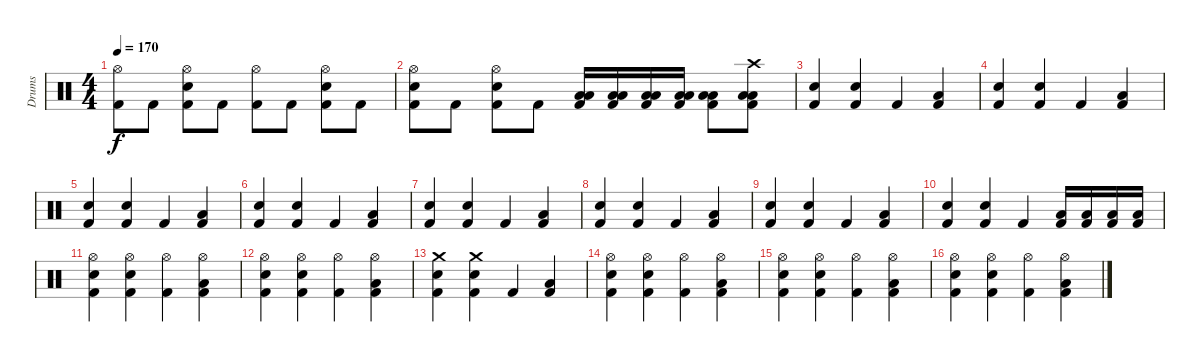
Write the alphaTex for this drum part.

\track ("Drums" "Drums") {instrument percussion}
\staff {score}
\articulation defaults
\ts (4 4)
\tempo 170
\clef neutral
\ks c
("Hi-Hat (open)" "Kick (hit) 2").8{dy f} "Kick (hit) 2".8 ("Hi-Hat (open)" "Snare (hit) 2" "Kick (hit) 2").8 "Kick (hit) 2".8 ("Hi-Hat (open)" "Kick (hit) 2").8 "Kick (hit) 2".8 ("Hi-Hat (open)" "Snare (hit) 2" "Kick (hit) 2").8 "Kick (hit) 2".8 |
("Hi-Hat (open)" "Snare (hit) 2" "Kick (hit) 2").8 "Kick (hit) 2".8 ("Hi-Hat (open)" "Snare (hit) 2" "Kick (hit) 2").8 "Kick (hit) 2".8 ("Low Floor Tom (hit)" "Low Floor Tom (hit)" "Kick (hit) 2").16 ("Low Floor Tom (hit)" "Low Floor Tom (hit)" "Kick (hit) 2").16 ("Low Floor Tom (hit)" "Low Floor Tom (hit)" "Kick (hit) 2").16 ("Low Floor Tom (hit)" "Low Floor Tom (hit)" "Kick (hit) 2").16 ("Low Floor Tom (hit)" "Low Floor Tom (hit)" "Kick (hit) 2").8 ("Crash high (hit)" "Low Floor Tom (hit)" "Low Floor Tom (hit)" "Kick (hit) 2").8 |
("Snare (hit) 2" "Kick (hit) 2").4 ("Snare (hit) 2" "Kick (hit) 2").4 "Kick (hit) 2".4 ("Low Tom (hit)" "Kick (hit) 2").4 |
("Snare (hit) 2" "Kick (hit) 2").4 ("Snare (hit) 2" "Kick (hit) 2").4 "Kick (hit) 2".4 ("Low Tom (hit)" "Kick (hit) 2").4 |
("Snare (hit) 2" "Kick (hit) 2").4 ("Snare (hit) 2" "Kick (hit) 2").4 "Kick (hit) 2".4 ("Low Tom (hit)" "Kick (hit) 2").4 |
("Snare (hit) 2" "Kick (hit) 2").4 ("Snare (hit) 2" "Kick (hit) 2").4 "Kick (hit) 2".4 ("Low Tom (hit)" "Kick (hit) 2").4 |
("Snare (hit) 2" "Kick (hit) 2").4 ("Snare (hit) 2" "Kick (hit) 2").4 "Kick (hit) 2".4 ("Low Tom (hit)" "Kick (hit) 2").4 |
("Snare (hit) 2" "Kick (hit) 2").4 ("Snare (hit) 2" "Kick (hit) 2").4 "Kick (hit) 2".4 ("Low Tom (hit)" "Kick (hit) 2").4 |
("Snare (hit) 2" "Kick (hit) 2").4 ("Snare (hit) 2" "Kick (hit) 2").4 "Kick (hit) 2".4 ("Low Tom (hit)" "Kick (hit) 2").4 |
("Snare (hit) 2" "Kick (hit) 2").4 ("Snare (hit) 2" "Kick (hit) 2").4 "Kick (hit) 2".4 ("Low Floor Tom (hit)" "Kick (hit) 2").16 ("Low Floor Tom (hit)" "Kick (hit) 2").16 ("Low Floor Tom (hit)" "Kick (hit) 2").16 ("Low Floor Tom (hit)" "Kick (hit) 2").16 |
("Hi-Hat (open)" "Snare (hit) 2" "Kick (hit) 2").4 ("Hi-Hat (open)" "Snare (hit) 2" "Kick (hit) 2").4 ("Hi-Hat (open)" "Kick (hit) 2").4 ("Hi-Hat (open)" "Low Tom (hit)" "Kick (hit) 2").4 |
("Hi-Hat (open)" "Snare (hit) 2" "Kick (hit) 2").4 ("Hi-Hat (open)" "Snare (hit) 2" "Kick (hit) 2").4 ("Hi-Hat (open)" "Kick (hit) 2").4 ("Hi-Hat (open)" "Low Tom (hit)" "Kick (hit) 2").4 |
("Crash medium (hit)" "Snare (hit) 2" "Kick (hit) 2").4 ("Crash medium (hit)" "Snare (hit) 2" "Kick (hit) 2").4 "Kick (hit) 2".4 ("Low Tom (hit)" "Kick (hit) 2").4 |
("Hi-Hat (open)" "Snare (hit) 2" "Kick (hit) 2").4 ("Hi-Hat (open)" "Snare (hit) 2" "Kick (hit) 2").4 ("Hi-Hat (open)" "Kick (hit) 2").4 ("Hi-Hat (open)" "Low Tom (hit)" "Kick (hit) 2").4 |
("Hi-Hat (open)" "Snare (hit) 2" "Kick (hit) 2").4 ("Hi-Hat (open)" "Snare (hit) 2" "Kick (hit) 2").4 ("Hi-Hat (open)" "Kick (hit) 2").4 ("Hi-Hat (open)" "Low Tom (hit)" "Kick (hit) 2").4 |
("Hi-Hat (open)" "Snare (hit) 2" "Kick (hit) 2").4 ("Hi-Hat (open)" "Snare (hit) 2" "Kick (hit) 2").4 ("Hi-Hat (open)" "Kick (hit) 2").4 ("Hi-Hat (open)" "Low Tom (hit)" "Kick (hit) 2").4
